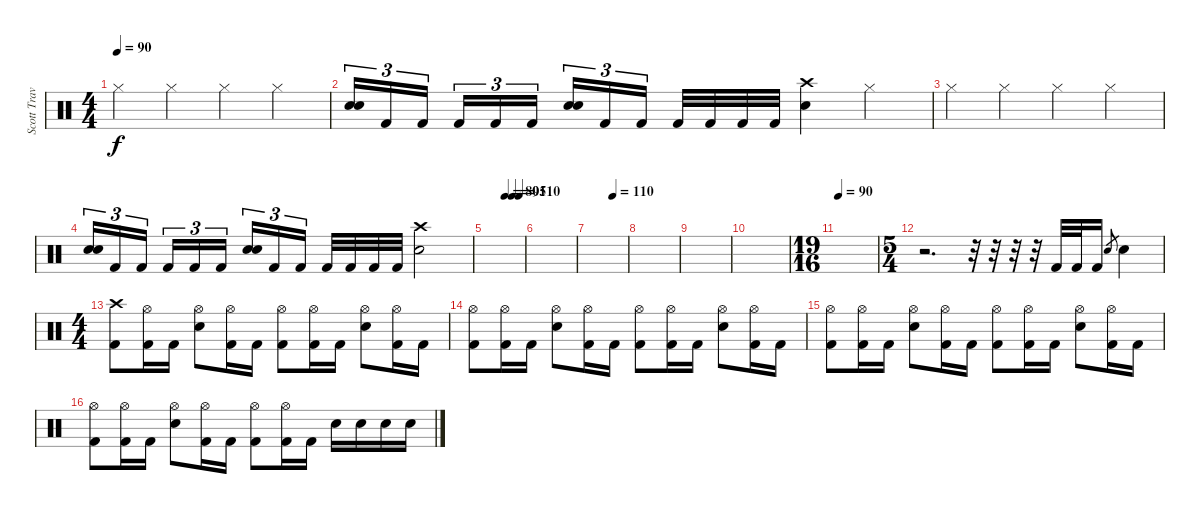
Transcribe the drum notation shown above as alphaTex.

\track ("Scott Travis" "Scott Trav") {instrument percussion}
\staff {score}
\articulation defaults
\ts (4 4)
\tempo 90
\clef neutral
\ks c "Hi-Hat (closed)".4{dy f} "Hi-Hat (closed)".4 "Hi-Hat (closed)".4 "Hi-Hat (closed)".4
|
("Electric Snare (hit)" "Electric Snare (hit)").16{tu (3 2)} "Kick (hit) 2".16{tu (3 2)} "Kick (hit) 2".16{tu (3 2)} "Kick (hit) 2".16{tu (3 2)} "Kick (hit) 2".16{tu (3 2)} "Kick (hit) 2".16{tu (3 2)} ("Electric Snare (hit)" "Electric Snare (hit)").16{tu (3 2)} "Kick (hit) 2".16{tu (3 2)} "Kick (hit) 2".16{tu (3 2)} "Kick (hit) 2".32 "Kick (hit) 2".32 "Kick (hit) 2".32 "Kick (hit) 2".32 ("Electric Snare (hit)" "Crash high (hit)").4 "Hi-Hat (closed)".4 |
"Hi-Hat (closed)".4 "Hi-Hat (closed)".4 "Hi-Hat (closed)".4 "Hi-Hat (closed)".4 |
("Electric Snare (hit)" "Electric Snare (hit)").16{tu (3 2)} "Kick (hit) 2".16{tu (3 2)} "Kick (hit) 2".16{tu (3 2)} "Kick (hit) 2".16{tu (3 2)} "Kick (hit) 2".16{tu (3 2)} "Kick (hit) 2".16{tu (3 2)} ("Electric Snare (hit)" "Electric Snare (hit)").16{tu (3 2)} "Kick (hit) 2".16{tu (3 2)} "Kick (hit) 2".16{tu (3 2)} "Kick (hit) 2".32 "Kick (hit) 2".32 "Kick (hit) 2".32 "Kick (hit) 2".32 ("Electric Snare (hit)" "Crash high (hit)").2 |
\tempo (80 0.5)
\tempo (95 0.6875)
\tempo (110 0.875)
|
|
\tempo (110 0.625)
|
|
|
|
\ts (19 16)
\tempo 90
|
\ts (5 4)
r.2{d} r.32 r.32 r.32 r.32 "Kick (hit) 2".32 "Kick (hit) 2".32 "Kick (hit) 2".16 "Electric Snare (hit)".8{gr} "Electric Snare (hit)".4 |
\ts (4 4)
("Kick (hit) 2" "Crash high (hit)").8 ("Kick (hit) 2" "Hi-Hat (open)").16 "Kick (hit) 2".16 ("Electric Snare (hit)" "Hi-Hat (open)").8 ("Kick (hit) 2" "Hi-Hat (open)").16 "Kick (hit) 2".16 ("Kick (hit) 2" "Hi-Hat (open)").8 ("Kick (hit) 2" "Hi-Hat (open)").16 "Kick (hit) 2".16 ("Electric Snare (hit)" "Hi-Hat (open)").8 ("Kick (hit) 2" "Hi-Hat (open)").16 "Kick (hit) 2".16 |
("Kick (hit) 2" "Hi-Hat (open)").8 ("Kick (hit) 2" "Hi-Hat (open)").16 "Kick (hit) 2".16 ("Electric Snare (hit)" "Hi-Hat (open)").8 ("Kick (hit) 2" "Hi-Hat (open)").16 "Kick (hit) 2".16 ("Kick (hit) 2" "Hi-Hat (open)").8 ("Kick (hit) 2" "Hi-Hat (open)").16 "Kick (hit) 2".16 ("Electric Snare (hit)" "Hi-Hat (open)").8 ("Kick (hit) 2" "Hi-Hat (open)").16 "Kick (hit) 2".16 |
("Kick (hit) 2" "Hi-Hat (open)").8 ("Kick (hit) 2" "Hi-Hat (open)").16 "Kick (hit) 2".16 ("Electric Snare (hit)" "Hi-Hat (open)").8 ("Kick (hit) 2" "Hi-Hat (open)").16 "Kick (hit) 2".16 ("Kick (hit) 2" "Hi-Hat (open)").8 ("Kick (hit) 2" "Hi-Hat (open)").16 "Kick (hit) 2".16 ("Electric Snare (hit)" "Hi-Hat (open)").8 ("Kick (hit) 2" "Hi-Hat (open)").16 "Kick (hit) 2".16 |
("Kick (hit) 2" "Hi-Hat (open)").8 ("Kick (hit) 2" "Hi-Hat (open)").16 "Kick (hit) 2".16 ("Electric Snare (hit)" "Hi-Hat (open)").8 ("Kick (hit) 2" "Hi-Hat (open)").16 "Kick (hit) 2".16 ("Kick (hit) 2" "Hi-Hat (open)").8 ("Kick (hit) 2" "Hi-Hat (open)").16 "Kick (hit) 2".16 "Electric Snare (hit)".16 "Electric Snare (hit)".16 "Electric Snare (hit)".16 "Electric Snare (hit)".16
